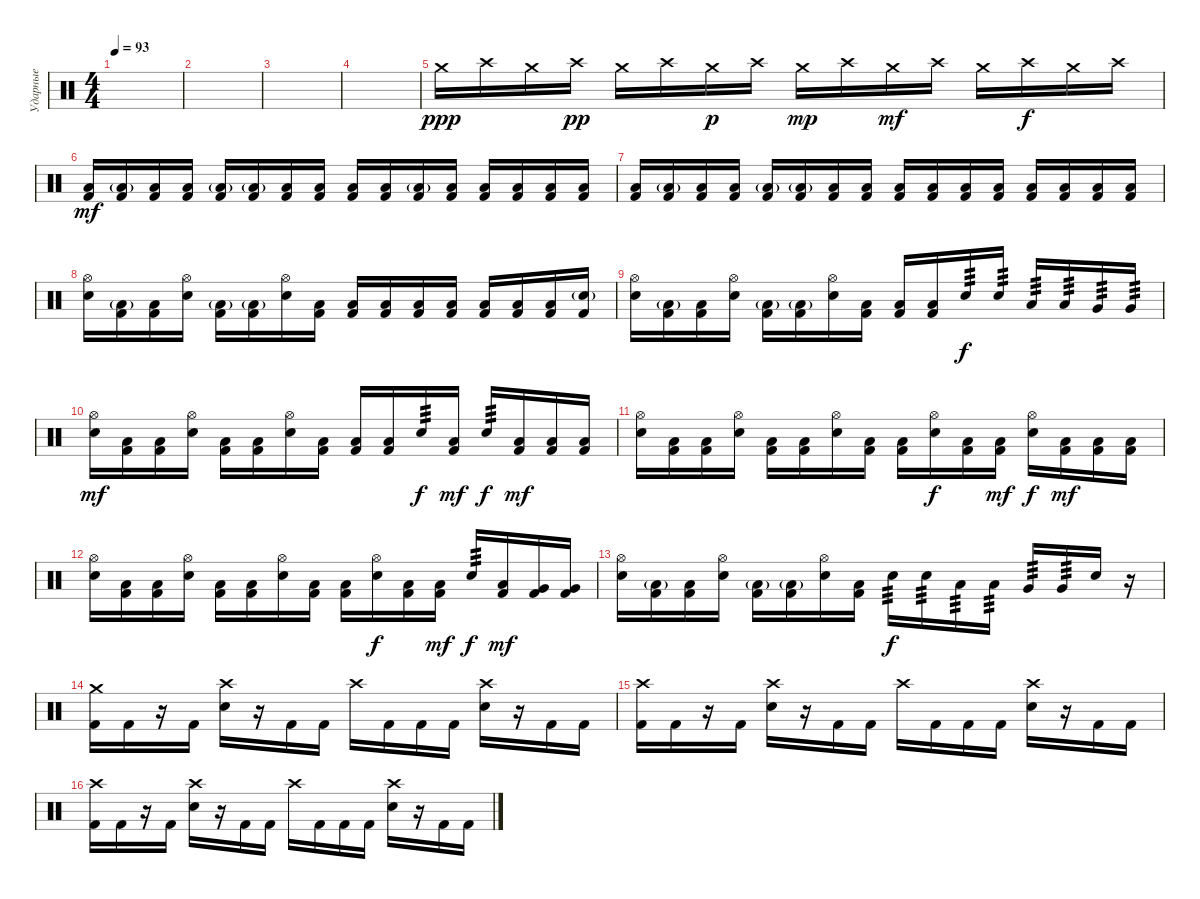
\track ("Ударные" "Ударные") {instrument percussion}
\staff {score}
\articulation defaults
\ts (4 4)
\tempo 93
\clef neutral
\ks c
|
|
|
|
"Crash medium (hit)".16{dy ppp} "Crash high (hit)".16 "Crash medium (hit)".16 "Crash high (hit)".16{dy pp} "Crash medium (hit)".16 "Crash high (hit)".16 "Crash medium (hit)".16{dy p} "Crash high (hit)".16 "Crash medium (hit)".16{dy mp} "Crash high (hit)".16 "Crash medium (hit)".16{dy mf} "Crash high (hit)".16 "Crash medium (hit)".16 "Crash high (hit)".16{dy f} "Crash medium (hit)".16 "Crash high (hit)".16 |
("Low Tom (hit)" "Kick (hit) 2").16{dy mf} ("Low Tom (hit)"{g} "Kick (hit) 2").16 ("Low Tom (hit)" "Kick (hit) 2").16 ("Low Tom (hit)" "Kick (hit) 2").16 ("Low Tom (hit)"{g} "Kick (hit) 2").16 ("Low Tom (hit)"{g} "Kick (hit) 2").16 ("Low Tom (hit)" "Kick (hit) 2").16 ("Low Tom (hit)" "Kick (hit) 2").16 ("Low Tom (hit)" "Kick (hit) 2").16 ("Low Tom (hit)" "Kick (hit) 2").16 ("Low Tom (hit)"{g} "Kick (hit) 2").16 ("Low Tom (hit)" "Kick (hit) 2").16 ("Low Tom (hit)" "Kick (hit) 2").16 ("Low Tom (hit)" "Kick (hit) 2").16 ("Low Tom (hit)" "Kick (hit) 2").16 ("Low Tom (hit)" "Kick (hit) 2").16 |
("Low Tom (hit)" "Kick (hit) 2").16 ("Low Tom (hit)"{g} "Kick (hit) 2").16 ("Low Tom (hit)" "Kick (hit) 2").16 ("Low Tom (hit)" "Kick (hit) 2").16 ("Low Tom (hit)"{g} "Kick (hit) 2").16 ("Low Tom (hit)"{g} "Kick (hit) 2").16 ("Low Tom (hit)" "Kick (hit) 2").16 ("Low Tom (hit)" "Kick (hit) 2").16 ("Low Tom (hit)" "Kick (hit) 2").16 ("Low Tom (hit)" "Kick (hit) 2").16 ("Low Tom (hit)" "Kick (hit) 2").16 ("Low Tom (hit)" "Kick (hit) 2").16 ("Low Tom (hit)" "Kick (hit) 2").16 ("Low Tom (hit)" "Kick (hit) 2").16 ("Low Tom (hit)" "Kick (hit) 2").16 ("Low Tom (hit)" "Kick (hit) 2").16 |
("Hi-Hat (open)" "Electric Snare (hit)").16 ("Low Tom (hit)"{g} "Kick (hit) 2").16 ("Low Tom (hit)" "Kick (hit) 2").16 ("Hi-Hat (open)" "Electric Snare (hit)").16 ("Low Tom (hit)"{g} "Kick (hit) 2").16 ("Low Tom (hit)"{g} "Kick (hit) 2").16 ("Hi-Hat (open)" "Electric Snare (hit)").16 ("Low Tom (hit)" "Kick (hit) 2").16 ("Low Tom (hit)" "Kick (hit) 2").16 ("Low Tom (hit)" "Kick (hit) 2").16 ("Low Tom (hit)" "Kick (hit) 2").16 ("Low Tom (hit)" "Kick (hit) 2").16 ("Low Tom (hit)" "Kick (hit) 2").16 ("Low Tom (hit)" "Kick (hit) 2").16 ("Low Tom (hit)" "Kick (hit) 2").16 ("Electric Snare (hit)"{g} "Kick (hit) 2").16 |
("Hi-Hat (open)" "Electric Snare (hit)").16 ("Low Tom (hit)"{g} "Kick (hit) 2").16 ("Low Tom (hit)" "Kick (hit) 2").16 ("Hi-Hat (open)" "Electric Snare (hit)").16 ("Low Tom (hit)"{g} "Kick (hit) 2").16 ("Low Tom (hit)"{g} "Kick (hit) 2").16 ("Hi-Hat (open)" "Electric Snare (hit)").16 ("Low Tom (hit)" "Kick (hit) 2").16 ("Low Tom (hit)" "Kick (hit) 2").16 ("Low Tom (hit)" "Kick (hit) 2").16 "Electric Snare (hit)".16{tp 3 dy f} "Electric Snare (hit)".16{tp 3} "Low Tom (hit)".16{tp 3} "Low Tom (hit)".16{tp 3} "Very Low Tom (hit)".16{tp 3} "Very Low Tom (hit)".16{tp 3} |
("Hi-Hat (open)" "Electric Snare (hit)").16{dy mf} ("Low Tom (hit)" "Kick (hit) 2").16 ("Low Tom (hit)" "Kick (hit) 2").16 ("Hi-Hat (open)" "Electric Snare (hit)").16 ("Low Tom (hit)" "Kick (hit) 2").16 ("Low Tom (hit)" "Kick (hit) 2").16 ("Hi-Hat (open)" "Electric Snare (hit)").16 ("Low Tom (hit)" "Kick (hit) 2").16 ("Low Tom (hit)" "Kick (hit) 2").16 ("Low Tom (hit)" "Kick (hit) 2").16 "Electric Snare (hit)".16{tp 3 dy f} ("Low Tom (hit)" "Kick (hit) 2").16{dy mf} "Electric Snare (hit)".16{tp 3 dy f} ("Low Tom (hit)" "Kick (hit) 2").16{dy mf} ("Low Tom (hit)" "Kick (hit) 2").16 ("Low Tom (hit)" "Kick (hit) 2").16 |
("Hi-Hat (open)" "Electric Snare (hit)").16 ("Low Tom (hit)" "Kick (hit) 2").16 ("Low Tom (hit)" "Kick (hit) 2").16 ("Hi-Hat (open)" "Electric Snare (hit)").16 ("Low Tom (hit)" "Kick (hit) 2").16 ("Low Tom (hit)" "Kick (hit) 2").16 ("Hi-Hat (open)" "Electric Snare (hit)").16 ("Low Tom (hit)" "Kick (hit) 2").16 ("Low Tom (hit)" "Kick (hit) 2").16 ("Hi-Hat (open)" "Electric Snare (hit)").16{dy f} ("Low Tom (hit)" "Kick (hit) 2").16 ("Low Tom (hit)" "Kick (hit) 2").16{dy mf} ("Hi-Hat (open)" "Electric Snare (hit)").16{dy f} ("Low Tom (hit)" "Kick (hit) 2").16{dy mf} ("Low Tom (hit)" "Kick (hit) 2").16 ("Low Tom (hit)" "Kick (hit) 2").16 |
("Hi-Hat (open)" "Electric Snare (hit)").16 ("Low Tom (hit)" "Kick (hit) 2").16 ("Low Tom (hit)" "Kick (hit) 2").16 ("Hi-Hat (open)" "Electric Snare (hit)").16 ("Low Tom (hit)" "Kick (hit) 2").16 ("Low Tom (hit)" "Kick (hit) 2").16 ("Hi-Hat (open)" "Electric Snare (hit)").16 ("Low Tom (hit)" "Kick (hit) 2").16 ("Low Tom (hit)" "Kick (hit) 2").16 ("Hi-Hat (open)" "Electric Snare (hit)").16{dy f} ("Low Tom (hit)" "Kick (hit) 2").16 ("Low Tom (hit)" "Kick (hit) 2").16{dy mf} "Electric Snare (hit)".16{tp 3 dy f} ("Low Tom (hit)" "Kick (hit) 2").16{dy mf} ("Very Low Tom (hit)" "Kick (hit) 2").16 ("Very Low Tom (hit)" "Kick (hit) 2").16 |
("Hi-Hat (open)" "Electric Snare (hit)").16 ("Low Tom (hit)"{g} "Kick (hit) 2").16 ("Low Tom (hit)" "Kick (hit) 2").16 ("Hi-Hat (open)" "Electric Snare (hit)").16 ("Low Tom (hit)"{g} "Kick (hit) 2").16 ("Low Tom (hit)"{g} "Kick (hit) 2").16 ("Hi-Hat (open)" "Electric Snare (hit)").16 ("Low Tom (hit)" "Kick (hit) 2").16 "Electric Snare (hit)".16{tp 3 dy f} "Electric Snare (hit)".16{tp 3} "Low Tom (hit)".16{tp 3} "Low Tom (hit)".16{tp 3} "Very Low Tom (hit)".16{tp 3} "Very Low Tom (hit)".16{tp 3} "Snare (hit) 2".16 r.16 |
("Crash medium (hit)" "Kick (hit) 2").16 "Kick (hit) 2".16 r.16 "Kick (hit) 2".16 ("Crash high (hit)" "Electric Snare (hit)").16 r.16 "Kick (hit) 2".16 "Kick (hit) 2".16 "Crash high (hit)".16 "Kick (hit) 2".16 "Kick (hit) 2".16 "Kick (hit) 2".16 ("Crash high (hit)" "Electric Snare (hit)").16 r.16 "Kick (hit) 2".16 "Kick (hit) 2".16 |
("Crash high (hit)" "Kick (hit) 2").16 "Kick (hit) 2".16 r.16 "Kick (hit) 2".16 ("Crash high (hit)" "Electric Snare (hit)").16 r.16 "Kick (hit) 2".16 "Kick (hit) 2".16 "Crash high (hit)".16 "Kick (hit) 2".16 "Kick (hit) 2".16 "Kick (hit) 2".16 ("Crash high (hit)" "Electric Snare (hit)").16 r.16 "Kick (hit) 2".16 "Kick (hit) 2".16 |
("Crash high (hit)" "Kick (hit) 2").16 "Kick (hit) 2".16 r.16 "Kick (hit) 2".16 ("Crash high (hit)" "Electric Snare (hit)").16 r.16 "Kick (hit) 2".16 "Kick (hit) 2".16 "Crash high (hit)".16 "Kick (hit) 2".16 "Kick (hit) 2".16 "Kick (hit) 2".16 ("Crash high (hit)" "Electric Snare (hit)").16 r.16 "Kick (hit) 2".16 "Kick (hit) 2".16
